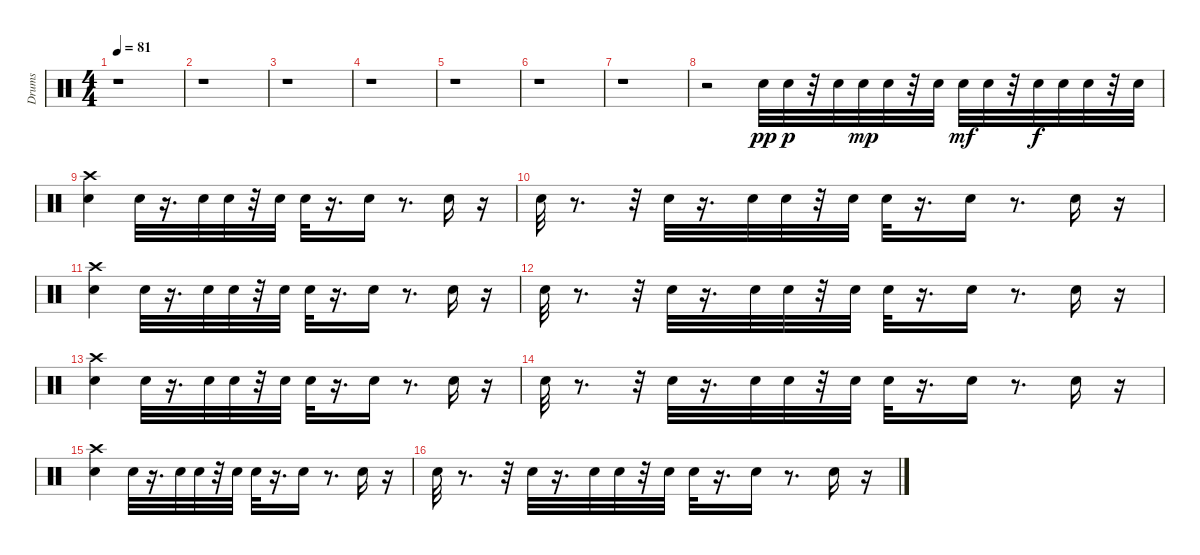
\track ("Drums" "Drums") {instrument percussion}
\staff {score}
\articulation defaults
\ts (4 4)
\tempo 81
\clef neutral
\ks c
r.1{dy pp} |
r.1 |
r.1 |
r.1 |
r.1 |
r.1 |
r.1 |
r.2 "Snare (hit) 2".32 "Snare (hit) 2".32{dy p} r.32 "Snare (hit) 2".32 "Snare (hit) 2".32{dy mp} "Snare (hit) 2".32 r.32 "Snare (hit) 2".32 "Snare (hit) 2".32{dy mf} "Snare (hit) 2".32 r.32 "Snare (hit) 2".32{dy f} "Snare (hit) 2".32 "Snare (hit) 2".32 r.32 "Snare (hit) 2".32 |
("Crash high (hit)" "Snare (hit) 2").4 "Snare (hit) 2".32 r.16{d} "Snare (hit) 2".32 "Snare (hit) 2".32 r.32 "Snare (hit) 2".32 "Snare (hit) 2".32 r.16{d} "Snare (hit) 2".16 r.8{d} "Snare (hit) 2".16 r.16 |
"Snare (hit) 2".32 r.8{d} r.32 "Snare (hit) 2".32 r.16{d} "Snare (hit) 2".32 "Snare (hit) 2".32 r.32 "Snare (hit) 2".32 "Snare (hit) 2".32 r.16{d} "Snare (hit) 2".16 r.8{d} "Snare (hit) 2".16 r.16 |
("Crash high (hit)" "Snare (hit) 2").4 "Snare (hit) 2".32 r.16{d} "Snare (hit) 2".32 "Snare (hit) 2".32 r.32 "Snare (hit) 2".32 "Snare (hit) 2".32 r.16{d} "Snare (hit) 2".16 r.8{d} "Snare (hit) 2".16 r.16 |
"Snare (hit) 2".32 r.8{d} r.32 "Snare (hit) 2".32 r.16{d} "Snare (hit) 2".32 "Snare (hit) 2".32 r.32 "Snare (hit) 2".32 "Snare (hit) 2".32 r.16{d} "Snare (hit) 2".16 r.8{d} "Snare (hit) 2".16 r.16 |
("Crash high (hit)" "Snare (hit) 2").4 "Snare (hit) 2".32 r.16{d} "Snare (hit) 2".32 "Snare (hit) 2".32 r.32 "Snare (hit) 2".32 "Snare (hit) 2".32 r.16{d} "Snare (hit) 2".16 r.8{d} "Snare (hit) 2".16 r.16 |
"Snare (hit) 2".32 r.8{d} r.32 "Snare (hit) 2".32 r.16{d} "Snare (hit) 2".32 "Snare (hit) 2".32 r.32 "Snare (hit) 2".32 "Snare (hit) 2".32 r.16{d} "Snare (hit) 2".16 r.8{d} "Snare (hit) 2".16 r.16 |
("Crash high (hit)" "Snare (hit) 2").4 "Snare (hit) 2".32 r.16{d} "Snare (hit) 2".32 "Snare (hit) 2".32 r.32 "Snare (hit) 2".32 "Snare (hit) 2".32 r.16{d} "Snare (hit) 2".16 r.8{d} "Snare (hit) 2".16 r.16 |
"Snare (hit) 2".32 r.8{d} r.32 "Snare (hit) 2".32 r.16{d} "Snare (hit) 2".32 "Snare (hit) 2".32 r.32 "Snare (hit) 2".32 "Snare (hit) 2".32 r.16{d} "Snare (hit) 2".16 r.8{d} "Snare (hit) 2".16 r.16
